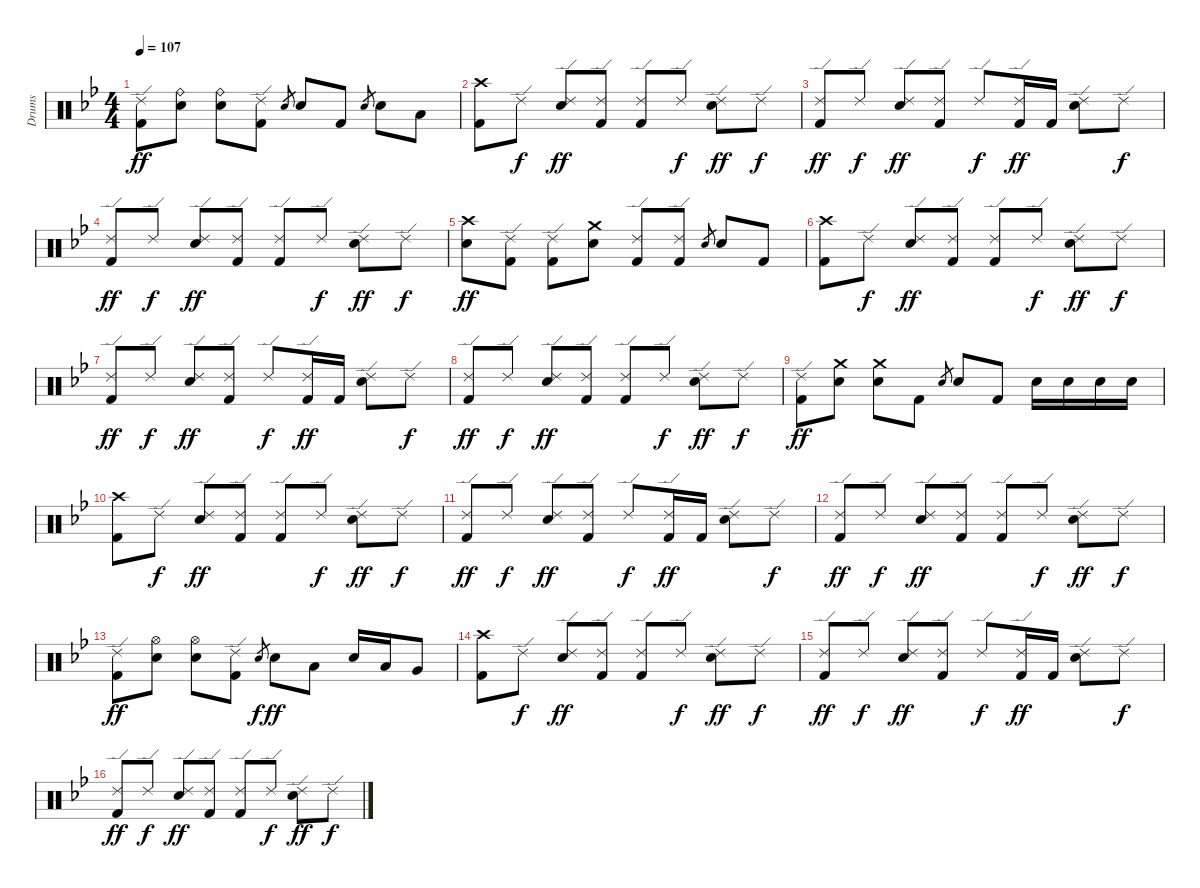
\track ("Drums" "Drums") {instrument percussion}
\staff {score}
\articulation defaults
\ts (4 4)
\tempo 107
\clef neutral
\ks gminor
("Ride (edge) 2" "Kick (hit) 2").8{dy ff} ("Ride (bell)" "Snare (hit) 2").8 ("Ride (bell)" "Snare (hit) 2").8 ("Ride (edge) 2" "Kick (hit) 2").8 "Snare (hit) 2".8{gr} "Snare (hit) 2".8 "Kick (hit) 2".8 "Snare (hit) 2".8{gr} "Snare (hit) 2".8 "Low Tom (hit)".8 |
("Crash high (hit)" "Kick (hit) 2").8 "Ride (edge) 2".8{dy f} ("Ride (edge) 2" "Snare (hit) 2").8{dy ff} ("Ride (edge) 2" "Kick (hit) 2").8 ("Ride (edge) 2" "Kick (hit) 2").8 "Ride (edge) 2".8{dy f} ("Ride (edge) 2" "Snare (hit) 2").8{dy ff} "Ride (edge) 2".8{dy f} |
("Ride (edge) 2" "Kick (hit) 2").8{dy ff} "Ride (edge) 2".8{dy f} ("Ride (edge) 2" "Snare (hit) 2").8{dy ff} ("Ride (edge) 2" "Kick (hit) 2").8 "Ride (edge) 2".8{dy f} ("Ride (edge) 2" "Kick (hit) 2").16{dy ff} "Kick (hit) 2".16 ("Ride (edge) 2" "Snare (hit) 2").8 "Ride (edge) 2".8{dy f} |
("Ride (edge) 2" "Kick (hit) 2").8{dy ff} "Ride (edge) 2".8{dy f} ("Ride (edge) 2" "Snare (hit) 2").8{dy ff} ("Ride (edge) 2" "Kick (hit) 2").8 ("Ride (edge) 2" "Kick (hit) 2").8 "Ride (edge) 2".8{dy f} ("Ride (edge) 2" "Snare (hit) 2").8{dy ff} "Ride (edge) 2".8{dy f} |
("Crash high (hit)" "Snare (hit) 2").8{dy ff} ("Ride (edge) 2" "Kick (hit) 2").8 ("Ride (edge) 2" "Kick (hit) 2").8 ("Crash medium (hit)" "Snare (hit) 2").8 ("Ride (edge) 2" "Kick (hit) 2").8 ("Ride (edge) 2" "Kick (hit) 2").8 "Snare (hit) 2".8{gr} "Snare (hit) 2".8 "Kick (hit) 2".8 |
("Crash high (hit)" "Kick (hit) 2").8 "Ride (edge) 2".8{dy f} ("Ride (edge) 2" "Snare (hit) 2").8{dy ff} ("Ride (edge) 2" "Kick (hit) 2").8 ("Ride (edge) 2" "Kick (hit) 2").8 "Ride (edge) 2".8{dy f} ("Ride (edge) 2" "Snare (hit) 2").8{dy ff} "Ride (edge) 2".8{dy f} |
("Ride (edge) 2" "Kick (hit) 2").8{dy ff} "Ride (edge) 2".8{dy f} ("Ride (edge) 2" "Snare (hit) 2").8{dy ff} ("Ride (edge) 2" "Kick (hit) 2").8 "Ride (edge) 2".8{dy f} ("Ride (edge) 2" "Kick (hit) 2").16{dy ff} "Kick (hit) 2".16 ("Ride (edge) 2" "Snare (hit) 2").8 "Ride (edge) 2".8{dy f} |
("Ride (edge) 2" "Kick (hit) 2").8{dy ff} "Ride (edge) 2".8{dy f} ("Ride (edge) 2" "Snare (hit) 2").8{dy ff} ("Ride (edge) 2" "Kick (hit) 2").8 ("Ride (edge) 2" "Kick (hit) 2").8 "Ride (edge) 2".8{dy f} ("Ride (edge) 2" "Snare (hit) 2").8{dy ff} "Ride (edge) 2".8{dy f} |
("Ride (edge) 2" "Kick (hit) 2").8{dy ff} ("Crash medium (hit)" "Snare (hit) 2").8 ("Crash medium (hit)" "Snare (hit) 2").8 "Kick (hit) 2".8 "Snare (hit) 2".8{gr} "Snare (hit) 2".8 "Kick (hit) 2".8 "Snare (hit) 2".16 "Snare (hit) 2".16 "Snare (hit) 2".16 "Snare (hit) 2".16 |
("Crash high (hit)" "Kick (hit) 2").8 "Ride (edge) 2".8{dy f} ("Ride (edge) 2" "Snare (hit) 2").8{dy ff} ("Ride (edge) 2" "Kick (hit) 2").8 ("Ride (edge) 2" "Kick (hit) 2").8 "Ride (edge) 2".8{dy f} ("Ride (edge) 2" "Snare (hit) 2").8{dy ff} "Ride (edge) 2".8{dy f} |
("Ride (edge) 2" "Kick (hit) 2").8{dy ff} "Ride (edge) 2".8{dy f} ("Ride (edge) 2" "Snare (hit) 2").8{dy ff} ("Ride (edge) 2" "Kick (hit) 2").8 "Ride (edge) 2".8{dy f} ("Ride (edge) 2" "Kick (hit) 2").16{dy ff} "Kick (hit) 2".16 ("Ride (edge) 2" "Snare (hit) 2").8 "Ride (edge) 2".8{dy f} |
("Ride (edge) 2" "Kick (hit) 2").8{dy ff} "Ride (edge) 2".8{dy f} ("Ride (edge) 2" "Snare (hit) 2").8{dy ff} ("Ride (edge) 2" "Kick (hit) 2").8 ("Ride (edge) 2" "Kick (hit) 2").8 "Ride (edge) 2".8{dy f} ("Ride (edge) 2" "Snare (hit) 2").8{dy ff} "Ride (edge) 2".8{dy f} |
("Ride (edge) 2" "Kick (hit) 2").8{dy ff} ("Hi-Hat (open)" "Snare (hit) 2").8 ("Hi-Hat (open)" "Snare (hit) 2").8 ("Ride (edge) 2" "Kick (hit) 2").8 "Snare (hit) 2".8{gr dy f} "Snare (hit) 2".8{dy ff} "Low Tom (hit)".8 "Snare (hit) 2".16 "Low Tom (hit)".16 "Very Low Tom (hit)".8 |
("Crash high (hit)" "Kick (hit) 2").8 "Ride (edge) 2".8{dy f} ("Ride (edge) 2" "Snare (hit) 2").8{dy ff} ("Ride (edge) 2" "Kick (hit) 2").8 ("Ride (edge) 2" "Kick (hit) 2").8 "Ride (edge) 2".8{dy f} ("Ride (edge) 2" "Snare (hit) 2").8{dy ff} "Ride (edge) 2".8{dy f} |
("Ride (edge) 2" "Kick (hit) 2").8{dy ff} "Ride (edge) 2".8{dy f} ("Ride (edge) 2" "Snare (hit) 2").8{dy ff} ("Ride (edge) 2" "Kick (hit) 2").8 "Ride (edge) 2".8{dy f} ("Ride (edge) 2" "Kick (hit) 2").16{dy ff} "Kick (hit) 2".16 ("Ride (edge) 2" "Snare (hit) 2").8 "Ride (edge) 2".8{dy f} |
("Ride (edge) 2" "Kick (hit) 2").8{dy ff} "Ride (edge) 2".8{dy f} ("Ride (edge) 2" "Snare (hit) 2").8{dy ff} ("Ride (edge) 2" "Kick (hit) 2").8 ("Ride (edge) 2" "Kick (hit) 2").8 "Ride (edge) 2".8{dy f} ("Ride (edge) 2" "Snare (hit) 2").8{dy ff} "Ride (edge) 2".8{dy f}
